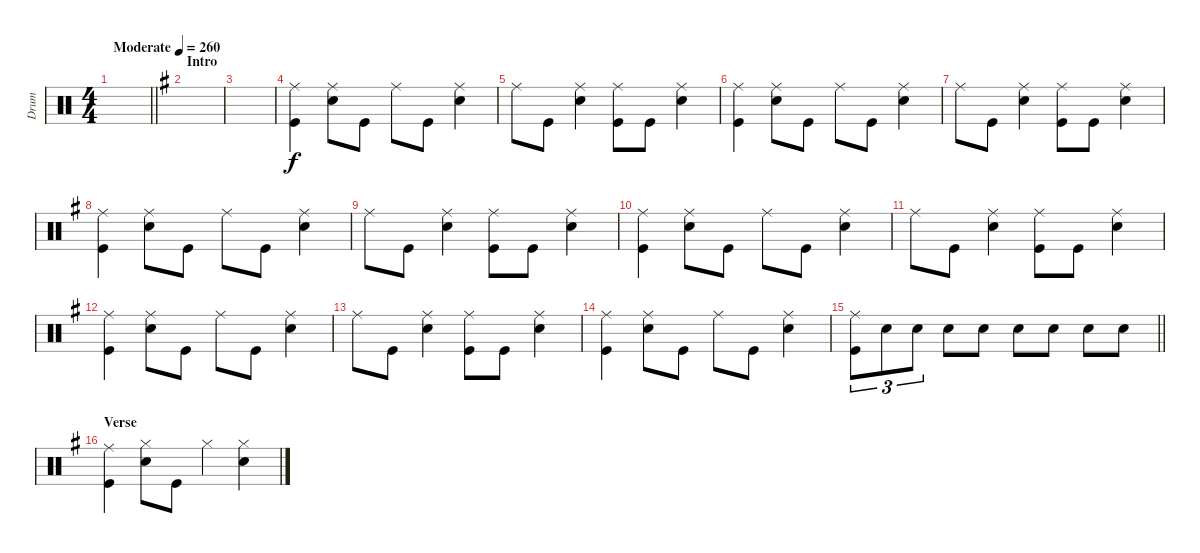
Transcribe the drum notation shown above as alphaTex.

\track ("Drum" "Drum") {instrument percussion}
\staff {score}
\articulation defaults
\ts (4 4)
\tempo (260 "Moderate")
\clef neutral
\barLineRight lightlight
\ks c
|
\section ("" "Intro")
\ks g
|
|
("Kick (hit)" "Ride (middle)").4 ("Ride (middle)" "Snare (hit) 2").8 "Kick (hit)".8 "Ride (middle)".8 "Kick (hit)".8 ("Ride (middle)" "Snare (hit) 2").4 |
"Ride (middle)".8 "Kick (hit)".8 ("Ride (middle)" "Snare (hit) 2").4 ("Ride (middle)" "Kick (hit)").8 "Kick (hit)".8 ("Ride (middle)" "Snare (hit) 2").4 |
("Kick (hit)" "Ride (middle)").4 ("Ride (middle)" "Snare (hit) 2").8 "Kick (hit)".8 "Ride (middle)".8 "Kick (hit)".8 ("Ride (middle)" "Snare (hit) 2").4 |
"Ride (middle)".8 "Kick (hit)".8 ("Ride (middle)" "Snare (hit) 2").4 ("Ride (middle)" "Kick (hit)").8 "Kick (hit)".8 ("Ride (middle)" "Snare (hit) 2").4 |
("Kick (hit)" "Ride (middle)").4 ("Ride (middle)" "Snare (hit) 2").8 "Kick (hit)".8 "Ride (middle)".8 "Kick (hit)".8 ("Ride (middle)" "Snare (hit) 2").4 |
"Ride (middle)".8 "Kick (hit)".8 ("Ride (middle)" "Snare (hit) 2").4 ("Ride (middle)" "Kick (hit)").8 "Kick (hit)".8 ("Ride (middle)" "Snare (hit) 2").4 |
("Kick (hit)" "Ride (middle)").4 ("Ride (middle)" "Snare (hit) 2").8 "Kick (hit)".8 "Ride (middle)".8 "Kick (hit)".8 ("Ride (middle)" "Snare (hit) 2").4 |
"Ride (middle)".8 "Kick (hit)".8 ("Ride (middle)" "Snare (hit) 2").4 ("Ride (middle)" "Kick (hit)").8 "Kick (hit)".8 ("Ride (middle)" "Snare (hit) 2").4 |
("Kick (hit)" "Ride (middle)").4 ("Ride (middle)" "Snare (hit) 2").8 "Kick (hit)".8 "Ride (middle)".8 "Kick (hit)".8 ("Ride (middle)" "Snare (hit) 2").4 |
"Ride (middle)".8 "Kick (hit)".8 ("Ride (middle)" "Snare (hit) 2").4 ("Ride (middle)" "Kick (hit)").8 "Kick (hit)".8 ("Ride (middle)" "Snare (hit) 2").4 |
("Kick (hit)" "Ride (middle)").4 ("Ride (middle)" "Snare (hit) 2").8 "Kick (hit)".8 "Ride (middle)".8 "Kick (hit)".8 ("Ride (middle)" "Snare (hit) 2").4 |
\barLineRight lightlight
("Ride (middle)" "Kick (hit)").8{tu (3 2)} "Snare (hit) 2".8{tu (3 2)} "Snare (hit) 2".8{tu (3 2)} "Snare (hit) 2".8 "Snare (hit) 2".8 "Snare (hit) 2".8 "Snare (hit) 2".8 "Snare (hit) 2".8 "Snare (hit) 2".8 |
\section ("" "Verse")
("Ride (middle)" "Kick (hit)").4 ("Hi-Hat (closed)" "Snare (hit) 2").8 "Kick (hit)".8 "Hi-Hat (closed)".4 ("Hi-Hat (closed)" "Snare (hit) 2").4
